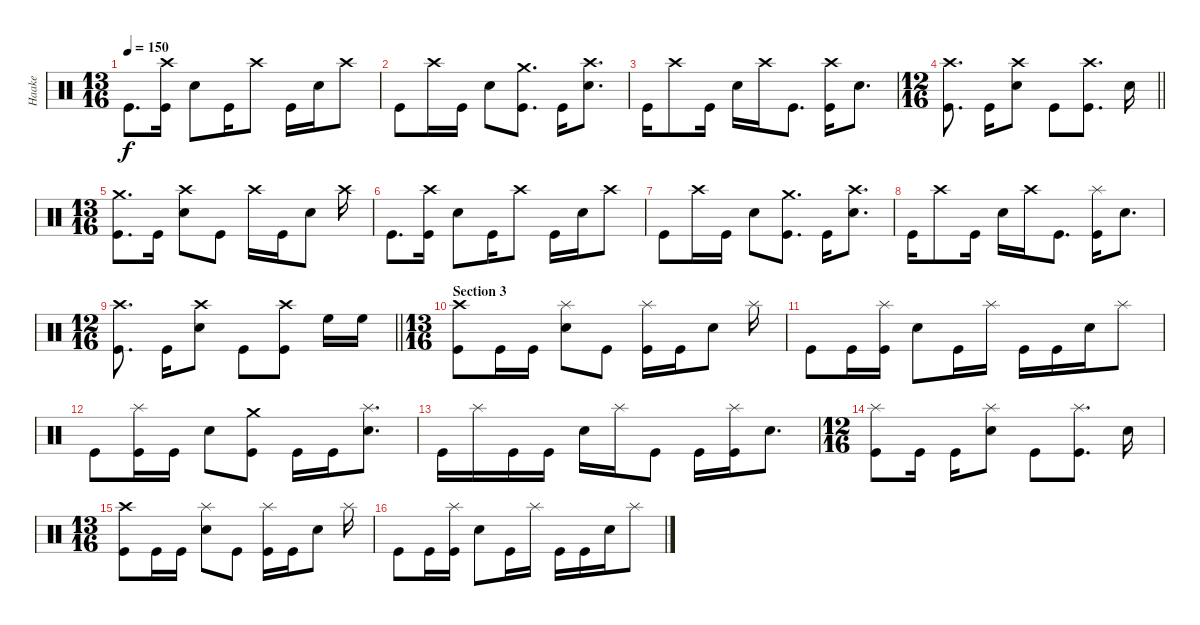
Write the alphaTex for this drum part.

\track ("Haake" "Haake") {instrument percussion}
\staff {score}
\articulation defaults
\ts (13 16)
\tempo 150
\clef neutral
\ks c "Kick (hit)".8{d dy f}
("Crash high (hit)" "Kick (hit)").16 "Snare (hit) 2".8 "Kick (hit)".16 "Crash high (hit)".8 "Kick (hit)".16 "Snare (hit) 2".16 "Crash high (hit)".8 |
"Kick (hit)".8 "Crash high (hit)".16 "Kick (hit)".16 "Snare (hit) 2".8 ("Crash medium (hit)" "Kick (hit)").8{d} "Kick (hit)".16 ("Crash high (hit)" "Snare (hit) 2").8{d} |
"Kick (hit)".16 "Crash high (hit)".8 "Kick (hit)".16 "Snare (hit) 2".16 "Crash high (hit)".16 "Kick (hit)".8{d} ("Crash high (hit)" "Kick (hit)").16 "Snare (hit) 2".8{d} |
\ts (12 16)
\barLineRight lightlight
("Crash high (hit)" "Kick (hit)").8{d} "Kick (hit)".16 ("Crash high (hit)" "Snare (hit) 2").8 "Kick (hit)".8 ("Crash high (hit)" "Kick (hit)").8{d} "Snare (hit) 2".16 |
\ts (13 16)
("Crash medium (hit)" "Kick (hit)").8{d} "Kick (hit)".16 ("Crash high (hit)" "Snare (hit) 2").8 "Kick (hit)".8 "Crash high (hit)".16 "Kick (hit)".16 "Snare (hit) 2".8 "Crash high (hit)".16 |
"Kick (hit)".8{d} ("Crash high (hit)" "Kick (hit)").16 "Snare (hit) 2".8 "Kick (hit)".16 "Crash high (hit)".8 "Kick (hit)".16 "Snare (hit) 2".16 "Crash high (hit)".8 |
"Kick (hit)".8 "Crash high (hit)".16 "Kick (hit)".16 "Snare (hit) 2".8 ("Crash medium (hit)" "Kick (hit)").8{d} "Kick (hit)".16 ("Crash high (hit)" "Snare (hit) 2").8{d} |
"Kick (hit)".16 "Crash high (hit)".8 "Kick (hit)".16 "Snare (hit) 2".16 "Crash high (hit)".16 "Kick (hit)".8{d} ("Splash (hit)" "Kick (hit)").16 "Snare (hit) 2".8{d} |
\ts (12 16)
\barLineRight lightlight
("Crash high (hit)" "Kick (hit)").8{d} "Kick (hit)".16 ("Crash high (hit)" "Snare (hit) 2").8 "Kick (hit)".8 ("Crash high (hit)" "Kick (hit)").8 "High Floor Tom (hit)".16 "High Floor Tom (hit)".16 |
\ts (13 16)
\section ("" "Section 3")
("Crash high (hit)" "Kick (hit)").8 "Kick (hit)".16 "Kick (hit)".16 ("Splash (hit)" "Snare (hit) 2").8 "Kick (hit)".8 ("Splash (hit)" "Kick (hit)").16 "Kick (hit)".16 "Snare (hit) 2".8 "Splash (hit)".16 |
"Kick (hit)".8 "Kick (hit)".16 ("Splash (hit)" "Kick (hit)").16 "Snare (hit) 2".8 "Kick (hit)".16 "Splash (hit)".16 "Kick (hit)".16 "Kick (hit)".16 "Snare (hit) 2".16 "Splash (hit)".8 |
"Kick (hit)".8 ("Splash (hit)" "Kick (hit)").16 "Kick (hit)".16 "Snare (hit) 2".8 ("Crash medium (hit)" "Kick (hit)").8 "Kick (hit)".16 "Kick (hit)".16 ("Splash (hit)" "Snare (hit) 2").8{d} |
"Kick (hit)".16 "Splash (hit)".16 "Kick (hit)".16 "Kick (hit)".16 "Snare (hit) 2".16 "Splash (hit)".16 "Kick (hit)".8 "Kick (hit)".16 ("Splash (hit)" "Kick (hit)").16 "Snare (hit) 2".8{d} |
\ts (12 16)
("Splash (hit)" "Kick (hit)").8 "Kick (hit)".16 "Kick (hit)".16 ("Splash (hit)" "Snare (hit) 2").8 "Kick (hit)".8 ("Splash (hit)" "Kick (hit)").8{d} "Snare (hit) 2".16 |
\ts (13 16)
("Crash high (hit)" "Kick (hit)").8 "Kick (hit)".16 "Kick (hit)".16 ("Splash (hit)" "Snare (hit) 2").8 "Kick (hit)".8 ("Splash (hit)" "Kick (hit)").16 "Kick (hit)".16 "Snare (hit) 2".8 "Splash (hit)".16 |
"Kick (hit)".8 "Kick (hit)".16 ("Splash (hit)" "Kick (hit)").16 "Snare (hit) 2".8 "Kick (hit)".16 "Splash (hit)".16 "Kick (hit)".16 "Kick (hit)".16 "Snare (hit) 2".16 "Splash (hit)".8
